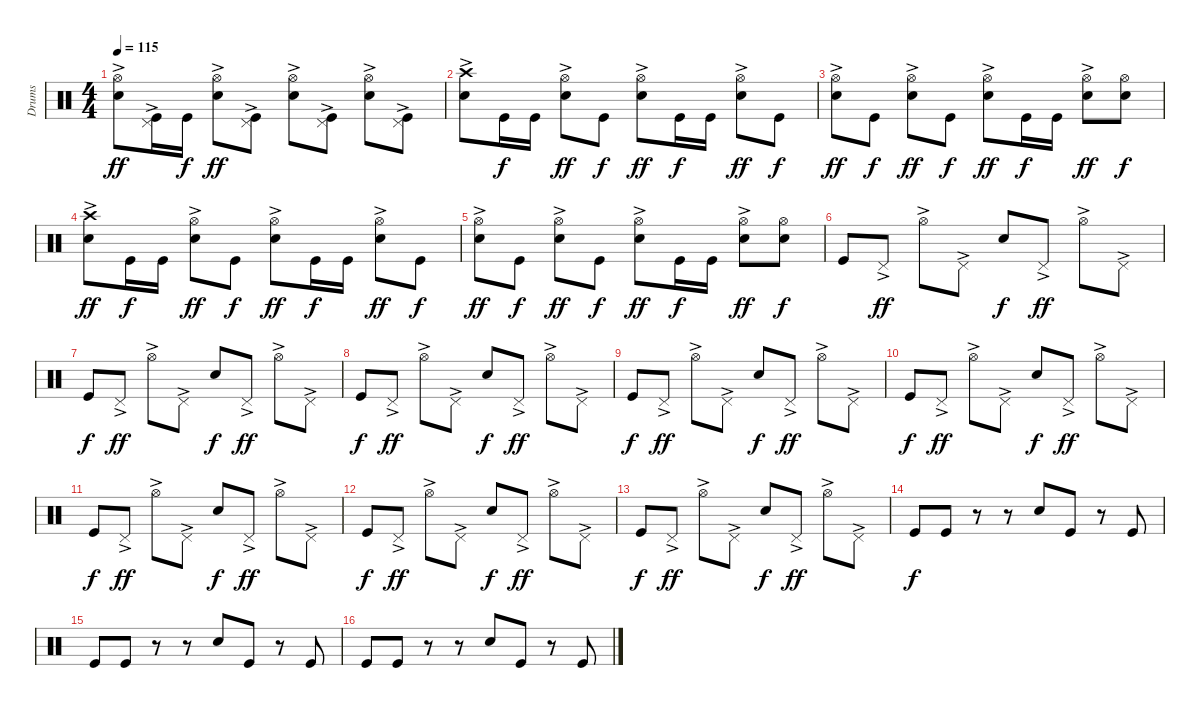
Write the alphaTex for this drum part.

\track ("Drums" "Drums") {instrument percussion}
\staff {score}
\articulation defaults
\ts (4 4)
\tempo 115
\clef neutral
\ks c
("Hi-Hat (open)"{ac} "Electric Snare (hit)").8{dy ff} ("Kick (hit)" "Pedal Hi-Hat (hit)"{ac}).16 "Kick (hit)".16{dy f} ("Hi-Hat (open)"{ac} "Electric Snare (hit)").8{dy ff} ("Kick (hit)" "Pedal Hi-Hat (hit)"{ac}).8 ("Hi-Hat (open)"{ac} "Electric Snare (hit)").8 ("Kick (hit)" "Pedal Hi-Hat (hit)"{ac}).8 ("Hi-Hat (open)"{ac} "Electric Snare (hit)").8 ("Kick (hit)" "Pedal Hi-Hat (hit)"{ac}).8 |
("Crash high (hit)"{ac} "Electric Snare (hit)").8 "Kick (hit)".16{dy f} "Kick (hit)".16 ("Hi-Hat (open)"{ac} "Electric Snare (hit)").8{dy ff} "Kick (hit)".8{dy f} ("Hi-Hat (open)"{ac} "Electric Snare (hit)").8{dy ff} "Kick (hit)".16{dy f} "Kick (hit)".16 ("Hi-Hat (open)"{ac} "Electric Snare (hit)").8{dy ff} "Kick (hit)".8{dy f} |
("Hi-Hat (open)"{ac} "Electric Snare (hit)").8{dy ff} "Kick (hit)".8{dy f} ("Hi-Hat (open)"{ac} "Electric Snare (hit)").8{dy ff} "Kick (hit)".8{dy f} ("Hi-Hat (open)"{ac} "Electric Snare (hit)").8{dy ff} "Kick (hit)".16{dy f} "Kick (hit)".16 ("Hi-Hat (open)"{ac} "Electric Snare (hit)").8{dy ff} ("Hi-Hat (open)" "Electric Snare (hit)").8{dy f} |
("Crash high (hit)"{ac} "Electric Snare (hit)").8{dy ff} "Kick (hit)".16{dy f} "Kick (hit)".16 ("Hi-Hat (open)"{ac} "Electric Snare (hit)").8{dy ff} "Kick (hit)".8{dy f} ("Hi-Hat (open)"{ac} "Electric Snare (hit)").8{dy ff} "Kick (hit)".16{dy f} "Kick (hit)".16 ("Hi-Hat (open)"{ac} "Electric Snare (hit)").8{dy ff} "Kick (hit)".8{dy f} |
("Hi-Hat (open)"{ac} "Electric Snare (hit)").8{dy ff} "Kick (hit)".8{dy f} ("Hi-Hat (open)"{ac} "Electric Snare (hit)").8{dy ff} "Kick (hit)".8{dy f} ("Hi-Hat (open)"{ac} "Electric Snare (hit)").8{dy ff} "Kick (hit)".16{dy f} "Kick (hit)".16 ("Hi-Hat (open)"{ac} "Electric Snare (hit)").8{dy ff} ("Hi-Hat (open)" "Electric Snare (hit)").8{dy f} |
"Kick (hit)".8{volume 11} "Pedal Hi-Hat (hit)"{ac}.8{dy ff} "Hi-Hat (open)"{ac}.8 "Pedal Hi-Hat (hit)"{ac}.8 "Electric Snare (hit)".8{dy f} "Pedal Hi-Hat (hit)"{ac}.8{dy ff} "Hi-Hat (open)"{ac}.8 "Pedal Hi-Hat (hit)"{ac}.8 |
"Kick (hit)".8{dy f} "Pedal Hi-Hat (hit)"{ac}.8{dy ff} "Hi-Hat (open)"{ac}.8 "Pedal Hi-Hat (hit)"{ac}.8 "Electric Snare (hit)".8{dy f} "Pedal Hi-Hat (hit)"{ac}.8{dy ff} "Hi-Hat (open)"{ac}.8 "Pedal Hi-Hat (hit)"{ac}.8 |
"Kick (hit)".8{dy f} "Pedal Hi-Hat (hit)"{ac}.8{dy ff} "Hi-Hat (open)"{ac}.8 "Pedal Hi-Hat (hit)"{ac}.8 "Electric Snare (hit)".8{dy f} "Pedal Hi-Hat (hit)"{ac}.8{dy ff} "Hi-Hat (open)"{ac}.8 "Pedal Hi-Hat (hit)"{ac}.8 |
"Kick (hit)".8{dy f} "Pedal Hi-Hat (hit)"{ac}.8{dy ff} "Hi-Hat (open)"{ac}.8 "Pedal Hi-Hat (hit)"{ac}.8 "Electric Snare (hit)".8{dy f} "Pedal Hi-Hat (hit)"{ac}.8{dy ff} "Hi-Hat (open)"{ac}.8 "Pedal Hi-Hat (hit)"{ac}.8 |
"Kick (hit)".8{dy f} "Pedal Hi-Hat (hit)"{ac}.8{dy ff} "Hi-Hat (open)"{ac}.8 "Pedal Hi-Hat (hit)"{ac}.8 "Electric Snare (hit)".8{dy f} "Pedal Hi-Hat (hit)"{ac}.8{dy ff} "Hi-Hat (open)"{ac}.8 "Pedal Hi-Hat (hit)"{ac}.8 |
"Kick (hit)".8{dy f} "Pedal Hi-Hat (hit)"{ac}.8{dy ff} "Hi-Hat (open)"{ac}.8 "Pedal Hi-Hat (hit)"{ac}.8 "Electric Snare (hit)".8{dy f} "Pedal Hi-Hat (hit)"{ac}.8{dy ff} "Hi-Hat (open)"{ac}.8 "Pedal Hi-Hat (hit)"{ac}.8 |
"Kick (hit)".8{dy f} "Pedal Hi-Hat (hit)"{ac}.8{dy ff} "Hi-Hat (open)"{ac}.8 "Pedal Hi-Hat (hit)"{ac}.8 "Electric Snare (hit)".8{dy f} "Pedal Hi-Hat (hit)"{ac}.8{dy ff} "Hi-Hat (open)"{ac}.8 "Pedal Hi-Hat (hit)"{ac}.8 |
"Kick (hit)".8{dy f} "Pedal Hi-Hat (hit)"{ac}.8{dy ff} "Hi-Hat (open)"{ac}.8 "Pedal Hi-Hat (hit)"{ac}.8 "Electric Snare (hit)".8{dy f} "Pedal Hi-Hat (hit)"{ac}.8{dy ff} "Hi-Hat (open)"{ac}.8 "Pedal Hi-Hat (hit)"{ac}.8 |
"Kick (hit)".8{dy f} "Kick (hit)".8 r.8 r.8 "Electric Snare (hit)".8 "Kick (hit)".8 r.8 "Kick (hit)".8 |
"Kick (hit)".8 "Kick (hit)".8 r.8 r.8 "Electric Snare (hit)".8 "Kick (hit)".8 r.8 "Kick (hit)".8 |
"Kick (hit)".8 "Kick (hit)".8 r.8 r.8 "Electric Snare (hit)".8 "Kick (hit)".8 r.8 "Kick (hit)".8
